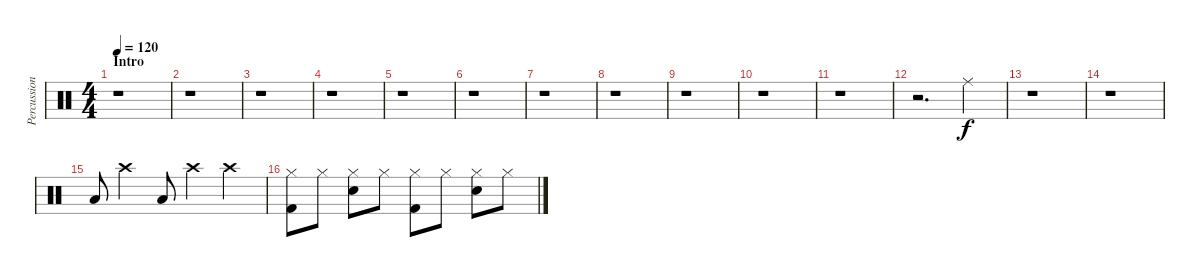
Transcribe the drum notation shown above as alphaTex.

\track ("Percussion" "Percussion") {instrument percussion}
\staff {score}
\articulation defaults
\ts (4 4)
\section ("" "Intro")
\tempo 120
\clef neutral
\ks c
r.1{dy f} |
r.1 |
r.1 |
r.1 |
r.1 |
r.1 |
r.1 |
r.1 |
r.1 |
r.1 |
r.1 |
r.2{d} "Ride (middle)".4 |
r.1 |
r.1 |
"Low Tom (hit)".8 "Crash high (hit)".4 "Low Tom (hit)".8 "Crash high (hit)".4 "Crash high (hit)".4 |
("Hi-Hat (closed)" "Kick (hit) 2").8 "Hi-Hat (closed)".8 ("Hi-Hat (closed)" "Electric Snare (hit)").8 "Hi-Hat (closed)".8 ("Hi-Hat (closed)" "Kick (hit) 2").8 "Hi-Hat (closed)".8 ("Hi-Hat (closed)" "Electric Snare (hit)").8 "Hi-Hat (closed)".8
